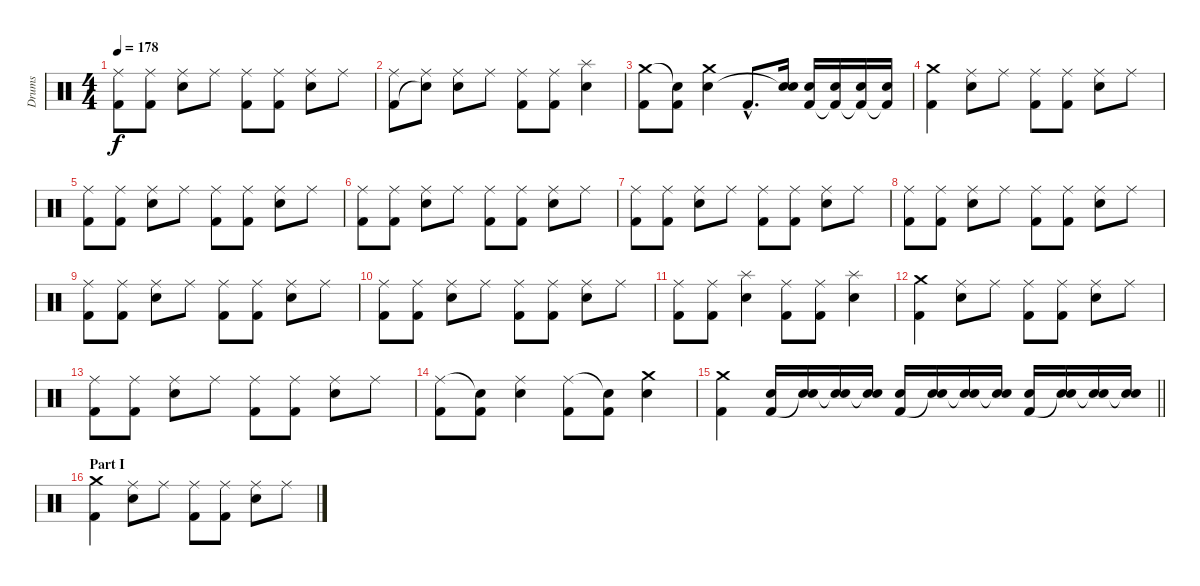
\track ("Drums" "Drums") {instrument percussion}
\staff {score}
\articulation defaults
\ts (4 4)
\tempo 178
\clef neutral
\ks c
("Ride (middle)" "Kick (hit) 2").8{dy f} ("Ride (middle)" "Kick (hit) 2").8 ("Ride (middle)" "Electric Snare (hit)").8 "Ride (middle)".8 ("Ride (middle)" "Kick (hit) 2").8 ("Ride (middle)" "Kick (hit) 2").8 ("Ride (middle)" "Electric Snare (hit)").8 "Ride (middle)".8 |
("Ride (middle)" "Kick (hit) 2").8 ("Ride (middle)" "Snare (hit)"{t}).8 ("Ride (middle)" "Electric Snare (hit)").8 "Ride (middle)".8 ("Ride (middle)" "Kick (hit) 2").8 ("Ride (middle)" "Kick (hit) 2").8 ("Splash (hit)" "Electric Snare (hit)").4 |
("Crash medium (hit)" "Kick (hit) 2").8 ("Snare (hit)"{t} "Kick (hit) 2").8 ("Crash medium (hit)" "Electric Snare (hit)").4 "Kick (hit) 2"{hac}.8{d} ("Electric Snare (hit)" "Snare (hit)"{t}).16 ("Electric Snare (hit)" "Kick (hit) 2").16 ("Electric Snare (hit)" "Kick (hit) 2"{t}).16 ("Electric Snare (hit)" "Kick (hit) 2"{t}).16 ("Electric Snare (hit)" "Kick (hit) 2"{t}).16 |
("Crash medium (hit)" "Kick (hit) 2").4 ("Ride (middle)" "Electric Snare (hit)").8 "Ride (middle)".8 ("Ride (middle)" "Kick (hit) 2").8 ("Ride (middle)" "Kick (hit) 2").8 ("Ride (middle)" "Electric Snare (hit)").8 "Ride (middle)".8 |
("Ride (middle)" "Kick (hit) 2").8 ("Ride (middle)" "Kick (hit) 2").8 ("Ride (middle)" "Electric Snare (hit)").8 "Ride (middle)".8 ("Ride (middle)" "Kick (hit) 2").8 ("Ride (middle)" "Kick (hit) 2").8 ("Ride (middle)" "Electric Snare (hit)").8 "Ride (middle)".8 |
("Ride (middle)" "Kick (hit) 2").8 ("Ride (middle)" "Kick (hit) 2").8 ("Ride (middle)" "Electric Snare (hit)").8 "Ride (middle)".8 ("Ride (middle)" "Kick (hit) 2").8 ("Ride (middle)" "Kick (hit) 2").8 ("Ride (middle)" "Electric Snare (hit)").8 "Ride (middle)".8 |
("Ride (middle)" "Kick (hit) 2").8 ("Ride (middle)" "Kick (hit) 2").8 ("Ride (middle)" "Electric Snare (hit)").8 "Ride (middle)".8 ("Ride (middle)" "Kick (hit) 2").8 ("Ride (middle)" "Kick (hit) 2").8 ("Ride (middle)" "Electric Snare (hit)").8 "Ride (middle)".8 |
("Ride (middle)" "Kick (hit) 2").8 ("Ride (middle)" "Kick (hit) 2").8 ("Ride (middle)" "Electric Snare (hit)").8 "Ride (middle)".8 ("Ride (middle)" "Kick (hit) 2").8 ("Ride (middle)" "Kick (hit) 2").8 ("Ride (middle)" "Electric Snare (hit)").8 "Ride (middle)".8 |
("Ride (middle)" "Kick (hit) 2").8 ("Ride (middle)" "Kick (hit) 2").8 ("Ride (middle)" "Electric Snare (hit)").8 "Ride (middle)".8 ("Ride (middle)" "Kick (hit) 2").8 ("Ride (middle)" "Kick (hit) 2").8 ("Ride (middle)" "Electric Snare (hit)").8 "Ride (middle)".8 |
("Ride (middle)" "Kick (hit) 2").8 ("Ride (middle)" "Kick (hit) 2").8 ("Ride (middle)" "Electric Snare (hit)").8 "Ride (middle)".8 ("Ride (middle)" "Kick (hit) 2").8 ("Ride (middle)" "Kick (hit) 2").8 ("Ride (middle)" "Electric Snare (hit)").8 "Ride (middle)".8 |
("Ride (middle)" "Kick (hit) 2").8 ("Ride (middle)" "Kick (hit) 2").8 ("Splash (hit)" "Electric Snare (hit)").4 ("Ride (middle)" "Kick (hit) 2").8 ("Ride (middle)" "Kick (hit) 2").8 ("Splash (hit)" "Electric Snare (hit)").4 |
("Crash medium (hit)" "Kick (hit) 2").4 ("Ride (middle)" "Electric Snare (hit)").8 "Ride (middle)".8 ("Ride (middle)" "Kick (hit) 2").8 ("Ride (middle)" "Kick (hit) 2").8 ("Ride (middle)" "Electric Snare (hit)").8 "Ride (middle)".8 |
("Ride (middle)" "Kick (hit) 2").8 ("Ride (middle)" "Kick (hit) 2").8 ("Ride (middle)" "Electric Snare (hit)").8 "Ride (middle)".8 ("Ride (middle)" "Kick (hit) 2").8 ("Ride (middle)" "Kick (hit) 2").8 ("Ride (middle)" "Electric Snare (hit)").8 "Ride (middle)".8 |
("Ride (middle)" "Kick (hit) 2").8 ("Snare (hit)"{t} "Kick (hit) 2").8 ("Ride (middle)" "Electric Snare (hit)").4 ("Ride (middle)" "Kick (hit) 2").8 ("Snare (hit)"{t} "Kick (hit) 2").8 ("Crash medium (hit)" "Electric Snare (hit)").4 |
\barLineRight lightlight
("Crash medium (hit)" "Kick (hit) 2").4 ("Electric Snare (hit)" "Kick (hit) 2").16 ("Electric Snare (hit)" "Snare (hit)"{t}).16 ("Electric Snare (hit)" "Snare (hit)"{t}).16 ("Electric Snare (hit)" "Snare (hit)"{t}).16 ("Electric Snare (hit)" "Kick (hit) 2").16 ("Electric Snare (hit)" "Snare (hit)"{t}).16 ("Electric Snare (hit)" "Snare (hit)"{t}).16 ("Electric Snare (hit)" "Snare (hit)"{t}).16 ("Electric Snare (hit)" "Kick (hit) 2").16 ("Electric Snare (hit)" "Snare (hit)"{t}).16 ("Electric Snare (hit)" "Snare (hit)"{t}).16 ("Electric Snare (hit)" "Snare (hit)"{t}).16 |
\section ("" "Part I")
("Crash medium (hit)" "Kick (hit) 2").4 ("Ride (middle)" "Electric Snare (hit)").8 "Ride (middle)".8 ("Ride (middle)" "Kick (hit) 2").8 ("Ride (middle)" "Kick (hit) 2").8 ("Ride (middle)" "Electric Snare (hit)").8 "Ride (middle)".8
